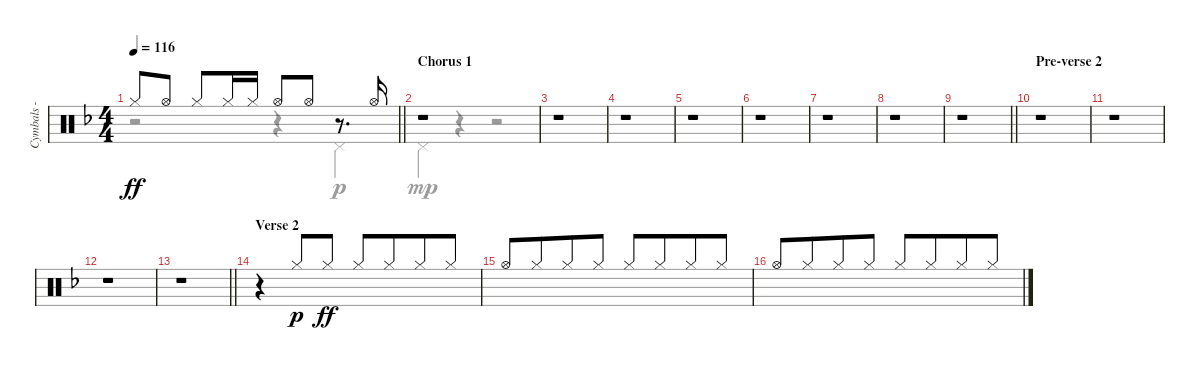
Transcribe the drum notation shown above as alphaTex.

\track ("Cymbals - hi-hat" "Cymbals - ") {instrument percussion}
\staff {score}
\articulation defaults
\voice
\ts (4 4)
\tempo 116
\clef neutral
\barLineRight lightlight
\ks f "Hi-Hat (closed)".8{dy ff} "Hi-Hat (open)".8 "Hi-Hat (closed)".8 "Hi-Hat (closed)".16 "Hi-Hat (closed)".16 "Hi-Hat (open)".8 "Hi-Hat (open)".8
r.8{d} "Hi-Hat (open)".16 |
\section ("" "Chorus 1")
r.1 |
r.1 |
r.1 |
r.1 |
r.1 |
r.1 |
r.1 |
\barLineRight lightlight
r.1 |
\section ("" "Pre-verse 2")
r.1 |
r.1 |
r.1 |
\barLineRight lightlight
r.1 |
\section ("" "Verse 2")
r.4 "Hi-Hat (closed)".8{dy p beam Up} "Hi-Hat (closed)".8{dy ff beam Up} "Hi-Hat (closed)".8{beam Up} "Hi-Hat (closed)".8{beam Up beam merge} "Hi-Hat (closed)".8{beam Up} "Hi-Hat (closed)".8{beam Up} |
"Hi-Hat (open)".8{beam Up} "Hi-Hat (closed)".8{beam Up beam merge} "Hi-Hat (closed)".8{beam Up} "Hi-Hat (closed)".8{beam Up} "Hi-Hat (closed)".8{beam Up} "Hi-Hat (closed)".8{beam Up beam merge} "Hi-Hat (closed)".8{beam Up} "Hi-Hat (closed)".8{beam Up} |
"Hi-Hat (open)".8{beam Up} "Hi-Hat (closed)".8{beam Up beam merge} "Hi-Hat (closed)".8{beam Up} "Hi-Hat (closed)".8{beam Up} "Hi-Hat (closed)".8{beam Up} "Hi-Hat (closed)".8{beam Up beam merge} "Hi-Hat (closed)".8{beam Up} "Hi-Hat (closed)".8{beam Up}
\voice
\clef neutral
\ottava regular
\simile none
\barLineRight lightlight
\ks f
r.2{dy p} r.4 "Pedal Hi-Hat (hit)".4 |
"Pedal Hi-Hat (hit)".4{dy mp} r.4 r.2 |
|
|
|
|
|
|
\barLineRight lightlight
|
|
|
|
\barLineRight lightlight
|
|
|
